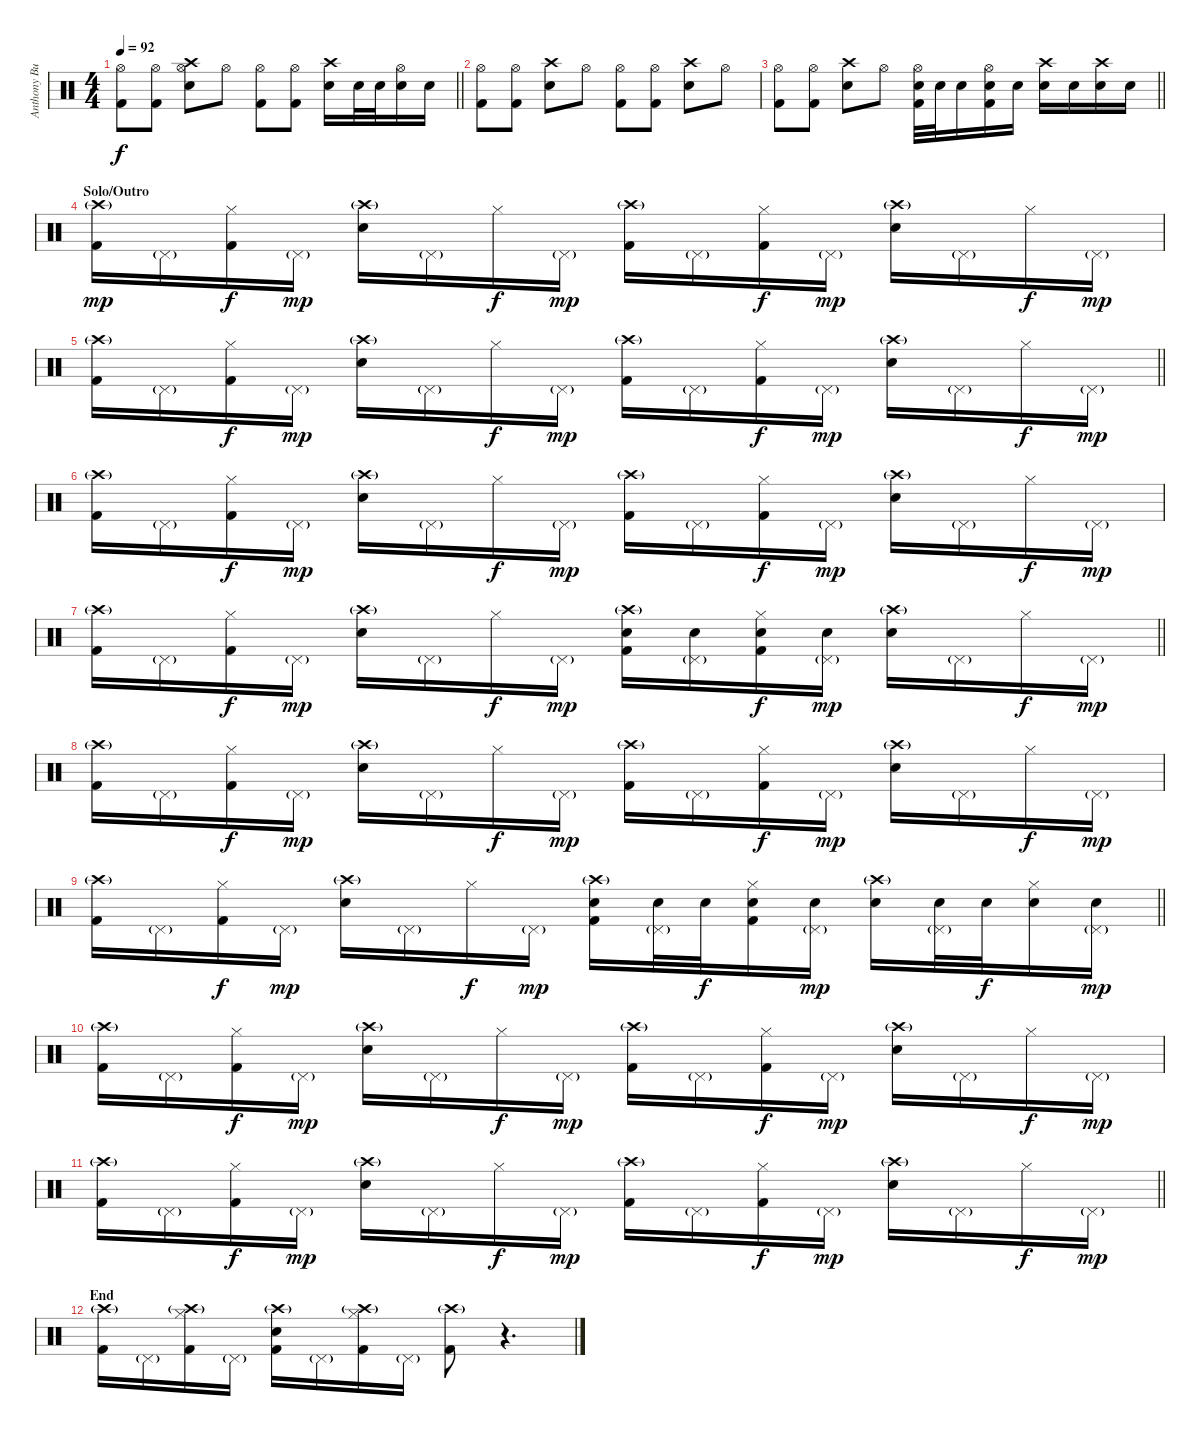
\track ("Anthony Burulcich" "Anthony Bu") {instrument percussion}
\staff {score}
\articulation defaults
\ts (4 4)
\tempo 92
\clef neutral
\barLineRight lightlight
\ks c
("Hi-Hat (open)" "Kick (hit) 2").8{dy f} ("Hi-Hat (open)" "Kick (hit) 2").8 ("Hi-Hat (open)" "Snare (hit) 2" "Crash high (hit)").8 "Hi-Hat (open)".8 ("Hi-Hat (open)" "Kick (hit) 2").8 ("Hi-Hat (open)" "Kick (hit) 2").8 ("Snare (hit) 2" "Crash high (hit)").16 "Snare (hit) 2".32 "Snare (hit) 2".32 ("Hi-Hat (open)" "Snare (hit) 2").16 "Snare (hit) 2".16 |
("Hi-Hat (open)" "Kick (hit) 2").8 ("Hi-Hat (open)" "Kick (hit) 2").8 ("Snare (hit) 2" "Crash high (hit)").8 "Hi-Hat (open)".8 ("Hi-Hat (open)" "Kick (hit) 2").8 ("Hi-Hat (open)" "Kick (hit) 2").8 ("Snare (hit) 2" "Crash high (hit)").8 "Hi-Hat (open)".8 |
\barLineRight lightlight
("Hi-Hat (open)" "Kick (hit) 2").8 ("Hi-Hat (open)" "Kick (hit) 2").8 ("Snare (hit) 2" "Crash high (hit)").8 "Hi-Hat (open)".8 ("Hi-Hat (open)" "Snare (hit) 2" "Kick (hit) 2").32 "Snare (hit) 2".32 "Snare (hit) 2".16 ("Hi-Hat (open)" "Snare (hit) 2" "Kick (hit) 2").16 "Snare (hit) 2".16 ("Snare (hit) 2" "Crash high (hit)").16 "Snare (hit) 2".16 ("Snare (hit) 2" "Crash high (hit)").16 "Snare (hit) 2".16 |
\section ("" "Solo/Outro")
("Crash high (hit)"{g} "Kick (hit) 2").16{dy mp} "Pedal Hi-Hat (hit)"{g}.16 ("Hi-Hat (closed)" "Kick (hit) 2").16{dy f} "Pedal Hi-Hat (hit)"{g}.16{dy mp} ("Snare (hit) 2" "Crash high (hit)"{g}).16 "Pedal Hi-Hat (hit)"{g}.16 "Hi-Hat (closed)".16{dy f} "Pedal Hi-Hat (hit)"{g}.16{dy mp} ("Crash high (hit)"{g} "Kick (hit) 2").16 "Pedal Hi-Hat (hit)"{g}.16 ("Hi-Hat (closed)" "Kick (hit) 2").16{dy f} "Pedal Hi-Hat (hit)"{g}.16{dy mp} ("Snare (hit) 2" "Crash high (hit)"{g}).16 "Pedal Hi-Hat (hit)"{g}.16 "Hi-Hat (closed)".16{dy f} "Pedal Hi-Hat (hit)"{g}.16{dy mp} |
\barLineRight lightlight
("Crash high (hit)"{g} "Kick (hit) 2").16 "Pedal Hi-Hat (hit)"{g}.16 ("Hi-Hat (closed)" "Kick (hit) 2").16{dy f} "Pedal Hi-Hat (hit)"{g}.16{dy mp} ("Snare (hit) 2" "Crash high (hit)"{g}).16 "Pedal Hi-Hat (hit)"{g}.16 "Hi-Hat (closed)".16{dy f} "Pedal Hi-Hat (hit)"{g}.16{dy mp} ("Crash high (hit)"{g} "Kick (hit) 2").16 "Pedal Hi-Hat (hit)"{g}.16 ("Hi-Hat (closed)" "Kick (hit) 2").16{dy f} "Pedal Hi-Hat (hit)"{g}.16{dy mp} ("Snare (hit) 2" "Crash high (hit)"{g}).16 "Pedal Hi-Hat (hit)"{g}.16 "Hi-Hat (closed)".16{dy f} "Pedal Hi-Hat (hit)"{g}.16{dy mp} |
("Crash high (hit)"{g} "Kick (hit) 2").16 "Pedal Hi-Hat (hit)"{g}.16 ("Hi-Hat (closed)" "Kick (hit) 2").16{dy f} "Pedal Hi-Hat (hit)"{g}.16{dy mp} ("Snare (hit) 2" "Crash high (hit)"{g}).16 "Pedal Hi-Hat (hit)"{g}.16 "Hi-Hat (closed)".16{dy f} "Pedal Hi-Hat (hit)"{g}.16{dy mp} ("Crash high (hit)"{g} "Kick (hit) 2").16 "Pedal Hi-Hat (hit)"{g}.16 ("Hi-Hat (closed)" "Kick (hit) 2").16{dy f} "Pedal Hi-Hat (hit)"{g}.16{dy mp} ("Snare (hit) 2" "Crash high (hit)"{g}).16 "Pedal Hi-Hat (hit)"{g}.16 "Hi-Hat (closed)".16{dy f} "Pedal Hi-Hat (hit)"{g}.16{dy mp} |
\barLineRight lightlight
("Crash high (hit)"{g} "Kick (hit) 2").16 "Pedal Hi-Hat (hit)"{g}.16 ("Hi-Hat (closed)" "Kick (hit) 2").16{dy f} "Pedal Hi-Hat (hit)"{g}.16{dy mp} ("Snare (hit) 2" "Crash high (hit)"{g}).16 "Pedal Hi-Hat (hit)"{g}.16 "Hi-Hat (closed)".16{dy f} "Pedal Hi-Hat (hit)"{g}.16{dy mp} ("Snare (hit) 2" "Crash high (hit)"{g} "Kick (hit) 2").16 ("Pedal Hi-Hat (hit)"{g} "Snare (hit) 2").16 ("Hi-Hat (closed)" "Snare (hit) 2" "Kick (hit) 2").16{dy f} ("Pedal Hi-Hat (hit)"{g} "Snare (hit) 2").16{dy mp} ("Snare (hit) 2" "Crash high (hit)"{g}).16 "Pedal Hi-Hat (hit)"{g}.16 "Hi-Hat (closed)".16{dy f} "Pedal Hi-Hat (hit)"{g}.16{dy mp} |
("Crash high (hit)"{g} "Kick (hit) 2").16 "Pedal Hi-Hat (hit)"{g}.16 ("Hi-Hat (closed)" "Kick (hit) 2").16{dy f} "Pedal Hi-Hat (hit)"{g}.16{dy mp} ("Snare (hit) 2" "Crash high (hit)"{g}).16 "Pedal Hi-Hat (hit)"{g}.16 "Hi-Hat (closed)".16{dy f} "Pedal Hi-Hat (hit)"{g}.16{dy mp} ("Crash high (hit)"{g} "Kick (hit) 2").16 "Pedal Hi-Hat (hit)"{g}.16 ("Hi-Hat (closed)" "Kick (hit) 2").16{dy f} "Pedal Hi-Hat (hit)"{g}.16{dy mp} ("Snare (hit) 2" "Crash high (hit)"{g}).16 "Pedal Hi-Hat (hit)"{g}.16 "Hi-Hat (closed)".16{dy f} "Pedal Hi-Hat (hit)"{g}.16{dy mp} |
\barLineRight lightlight
("Crash high (hit)"{g} "Kick (hit) 2").16 "Pedal Hi-Hat (hit)"{g}.16 ("Hi-Hat (closed)" "Kick (hit) 2").16{dy f} "Pedal Hi-Hat (hit)"{g}.16{dy mp} ("Snare (hit) 2" "Crash high (hit)"{g}).16 "Pedal Hi-Hat (hit)"{g}.16 "Hi-Hat (closed)".16{dy f} "Pedal Hi-Hat (hit)"{g}.16{dy mp} ("Snare (hit) 2" "Crash high (hit)"{g} "Kick (hit) 2").16 ("Pedal Hi-Hat (hit)"{g} "Snare (hit) 2").32 "Snare (hit) 2".32{dy f} ("Hi-Hat (closed)" "Snare (hit) 2" "Kick (hit) 2").16 ("Pedal Hi-Hat (hit)"{g} "Snare (hit) 2").16{dy mp} ("Snare (hit) 2" "Crash high (hit)"{g}).16 ("Pedal Hi-Hat (hit)"{g} "Snare (hit) 2").32 "Snare (hit) 2".32{dy f} ("Hi-Hat (closed)" "Snare (hit) 2").16 ("Pedal Hi-Hat (hit)"{g} "Snare (hit) 2").16{dy mp} |
("Crash high (hit)"{g} "Kick (hit) 2").16 "Pedal Hi-Hat (hit)"{g}.16 ("Hi-Hat (closed)" "Kick (hit) 2").16{dy f} "Pedal Hi-Hat (hit)"{g}.16{dy mp} ("Snare (hit) 2" "Crash high (hit)"{g}).16 "Pedal Hi-Hat (hit)"{g}.16 "Hi-Hat (closed)".16{dy f} "Pedal Hi-Hat (hit)"{g}.16{dy mp} ("Crash high (hit)"{g} "Kick (hit) 2").16 "Pedal Hi-Hat (hit)"{g}.16 ("Hi-Hat (closed)" "Kick (hit) 2").16{dy f} "Pedal Hi-Hat (hit)"{g}.16{dy mp} ("Snare (hit) 2" "Crash high (hit)"{g}).16 "Pedal Hi-Hat (hit)"{g}.16 "Hi-Hat (closed)".16{dy f} "Pedal Hi-Hat (hit)"{g}.16{dy mp} |
\barLineRight lightlight
("Crash high (hit)"{g} "Kick (hit) 2").16 "Pedal Hi-Hat (hit)"{g}.16 ("Hi-Hat (closed)" "Kick (hit) 2").16{dy f} "Pedal Hi-Hat (hit)"{g}.16{dy mp} ("Snare (hit) 2" "Crash high (hit)"{g}).16 "Pedal Hi-Hat (hit)"{g}.16 "Hi-Hat (closed)".16{dy f} "Pedal Hi-Hat (hit)"{g}.16{dy mp} ("Crash high (hit)"{g} "Kick (hit) 2").16 "Pedal Hi-Hat (hit)"{g}.16 ("Hi-Hat (closed)" "Kick (hit) 2").16{dy f} "Pedal Hi-Hat (hit)"{g}.16{dy mp} ("Snare (hit) 2" "Crash high (hit)"{g}).16 "Pedal Hi-Hat (hit)"{g}.16 "Hi-Hat (closed)".16{dy f} "Pedal Hi-Hat (hit)"{g}.16{dy mp} |
\section ("" "End")
("Crash high (hit)"{g} "Kick (hit) 2").16 "Pedal Hi-Hat (hit)"{g}.16 ("Hi-Hat (closed)" "Crash high (hit)"{g} "Kick (hit) 2").16 "Pedal Hi-Hat (hit)"{g}.16 ("Snare (hit) 2" "Crash high (hit)"{g} "Kick (hit) 2").16 "Pedal Hi-Hat (hit)"{g}.16 ("Hi-Hat (closed)" "Crash high (hit)"{g} "Kick (hit) 2").16 "Pedal Hi-Hat (hit)"{g}.16 ("Crash high (hit)"{g} "Kick (hit) 2").8 r.4{d}
